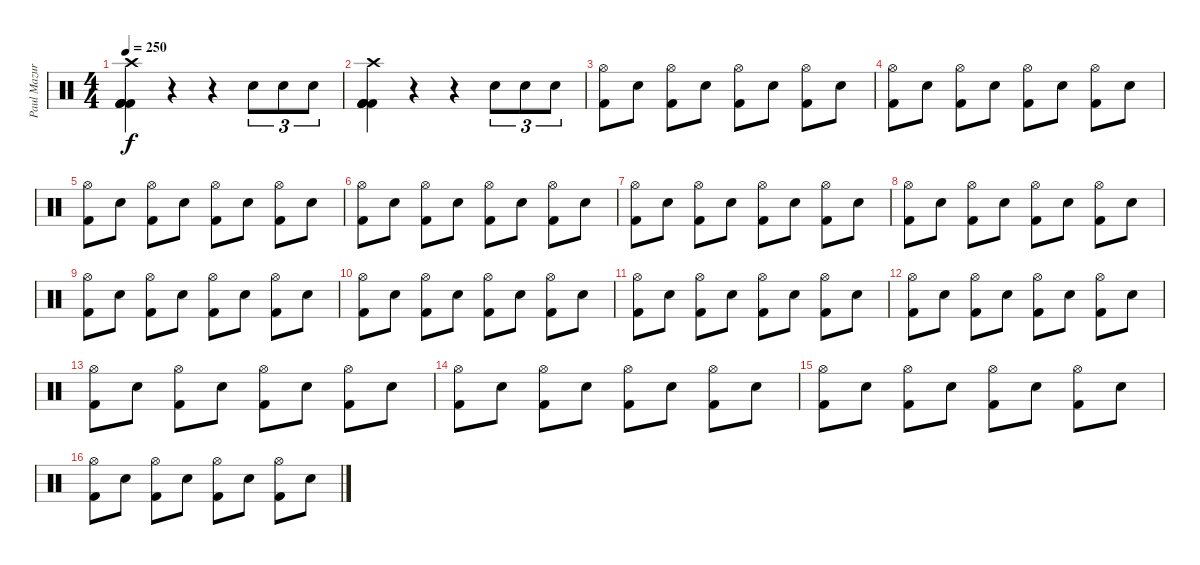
\track ("Paul Mazurkiewicz" "Paul Mazur") {instrument percussion}
\staff {score}
\articulation defaults
\ts (4 4)
\tempo 250
\clef neutral
\ks c
("Kick (hit) 2" "Kick (hit) 2" "Kick (hit) 2" "Kick (hit) 2" "Crash high (hit)").4{dy f} r.4 r.4 "Snare (hit) 2".8{tu (3 2)} "Snare (hit) 2".8{tu (3 2)} "Snare (hit) 2".8{tu (3 2)} |
("Kick (hit) 2" "Kick (hit) 2" "Kick (hit) 2" "Kick (hit) 2" "Crash high (hit)").4 r.4 r.4 "Snare (hit) 2".8{tu (3 2)} "Snare (hit) 2".8{tu (3 2)} "Snare (hit) 2".8{tu (3 2)} |
("Hi-Hat (open)" "Kick (hit) 2").8 "Snare (hit) 2".8 ("Hi-Hat (open)" "Kick (hit) 2").8 "Snare (hit) 2".8 ("Hi-Hat (open)" "Kick (hit) 2").8 "Snare (hit) 2".8 ("Hi-Hat (open)" "Kick (hit) 2").8 "Snare (hit) 2".8 |
("Hi-Hat (open)" "Kick (hit) 2").8 "Snare (hit) 2".8 ("Hi-Hat (open)" "Kick (hit) 2").8 "Snare (hit) 2".8 ("Hi-Hat (open)" "Kick (hit) 2").8 "Snare (hit) 2".8 ("Hi-Hat (open)" "Kick (hit) 2").8 "Snare (hit) 2".8 |
("Hi-Hat (open)" "Kick (hit) 2").8 "Snare (hit) 2".8 ("Hi-Hat (open)" "Kick (hit) 2").8 "Snare (hit) 2".8 ("Hi-Hat (open)" "Kick (hit) 2").8 "Snare (hit) 2".8 ("Hi-Hat (open)" "Kick (hit) 2").8 "Snare (hit) 2".8 |
("Hi-Hat (open)" "Kick (hit) 2").8 "Snare (hit) 2".8 ("Hi-Hat (open)" "Kick (hit) 2").8 "Snare (hit) 2".8 ("Hi-Hat (open)" "Kick (hit) 2").8 "Snare (hit) 2".8 ("Hi-Hat (open)" "Kick (hit) 2").8 "Snare (hit) 2".8 |
("Hi-Hat (open)" "Kick (hit) 2").8 "Snare (hit) 2".8 ("Hi-Hat (open)" "Kick (hit) 2").8 "Snare (hit) 2".8 ("Hi-Hat (open)" "Kick (hit) 2").8 "Snare (hit) 2".8 ("Hi-Hat (open)" "Kick (hit) 2").8 "Snare (hit) 2".8 |
("Hi-Hat (open)" "Kick (hit) 2").8 "Snare (hit) 2".8 ("Hi-Hat (open)" "Kick (hit) 2").8 "Snare (hit) 2".8 ("Hi-Hat (open)" "Kick (hit) 2").8 "Snare (hit) 2".8 ("Hi-Hat (open)" "Kick (hit) 2").8 "Snare (hit) 2".8 |
("Hi-Hat (open)" "Kick (hit) 2").8 "Snare (hit) 2".8 ("Hi-Hat (open)" "Kick (hit) 2").8 "Snare (hit) 2".8 ("Hi-Hat (open)" "Kick (hit) 2").8 "Snare (hit) 2".8 ("Hi-Hat (open)" "Kick (hit) 2").8 "Snare (hit) 2".8 |
("Hi-Hat (open)" "Kick (hit) 2").8 "Snare (hit) 2".8 ("Hi-Hat (open)" "Kick (hit) 2").8 "Snare (hit) 2".8 ("Hi-Hat (open)" "Kick (hit) 2").8 "Snare (hit) 2".8 ("Hi-Hat (open)" "Kick (hit) 2").8 "Snare (hit) 2".8 |
("Hi-Hat (open)" "Kick (hit) 2").8 "Snare (hit) 2".8 ("Hi-Hat (open)" "Kick (hit) 2").8 "Snare (hit) 2".8 ("Hi-Hat (open)" "Kick (hit) 2").8 "Snare (hit) 2".8 ("Hi-Hat (open)" "Kick (hit) 2").8 "Snare (hit) 2".8 |
("Hi-Hat (open)" "Kick (hit) 2").8 "Snare (hit) 2".8 ("Hi-Hat (open)" "Kick (hit) 2").8 "Snare (hit) 2".8 ("Hi-Hat (open)" "Kick (hit) 2").8 "Snare (hit) 2".8 ("Hi-Hat (open)" "Kick (hit) 2").8 "Snare (hit) 2".8 |
("Hi-Hat (open)" "Kick (hit) 2").8 "Snare (hit) 2".8 ("Hi-Hat (open)" "Kick (hit) 2").8 "Snare (hit) 2".8 ("Hi-Hat (open)" "Kick (hit) 2").8 "Snare (hit) 2".8 ("Hi-Hat (open)" "Kick (hit) 2").8 "Snare (hit) 2".8 |
("Hi-Hat (open)" "Kick (hit) 2").8 "Snare (hit) 2".8 ("Hi-Hat (open)" "Kick (hit) 2").8 "Snare (hit) 2".8 ("Hi-Hat (open)" "Kick (hit) 2").8 "Snare (hit) 2".8 ("Hi-Hat (open)" "Kick (hit) 2").8 "Snare (hit) 2".8 |
("Hi-Hat (open)" "Kick (hit) 2").8 "Snare (hit) 2".8 ("Hi-Hat (open)" "Kick (hit) 2").8 "Snare (hit) 2".8 ("Hi-Hat (open)" "Kick (hit) 2").8 "Snare (hit) 2".8 ("Hi-Hat (open)" "Kick (hit) 2").8 "Snare (hit) 2".8 |
("Hi-Hat (open)" "Kick (hit) 2").8 "Snare (hit) 2".8 ("Hi-Hat (open)" "Kick (hit) 2").8 "Snare (hit) 2".8 ("Hi-Hat (open)" "Kick (hit) 2").8 "Snare (hit) 2".8 ("Hi-Hat (open)" "Kick (hit) 2").8 "Snare (hit) 2".8
